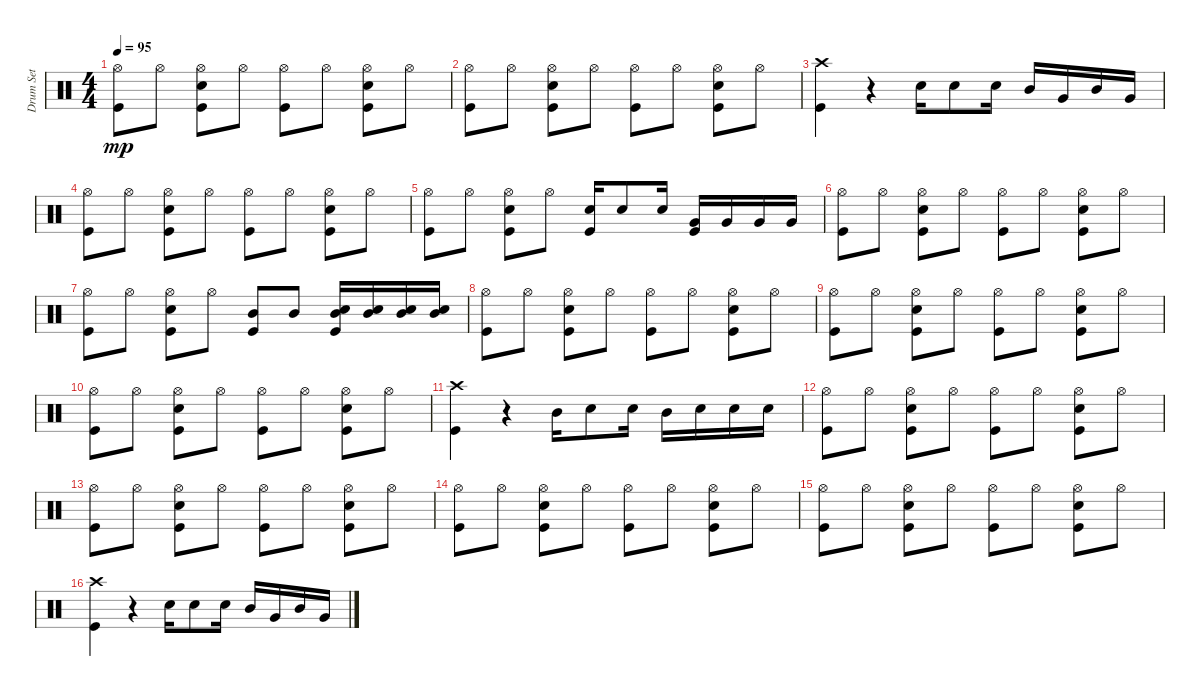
\track ("Drum Set" "Drum Set") {instrument percussion}
\staff {score}
\articulation defaults
\ts (4 4)
\tempo 95
\clef neutral
\ks c
("Kick (hit)" "Hi-Hat (open)").8{dy mp} "Hi-Hat (open)".8 ("Kick (hit)" "Snare (hit) 2" "Hi-Hat (open)").8 "Hi-Hat (open)".8 ("Kick (hit)" "Hi-Hat (open)").8 "Hi-Hat (open)".8 ("Kick (hit)" "Snare (hit) 2" "Hi-Hat (open)").8 "Hi-Hat (open)".8 |
("Kick (hit)" "Hi-Hat (open)").8 "Hi-Hat (open)".8 ("Kick (hit)" "Snare (hit) 2" "Hi-Hat (open)").8 "Hi-Hat (open)".8 ("Kick (hit)" "Hi-Hat (open)").8 "Hi-Hat (open)".8 ("Kick (hit)" "Snare (hit) 2" "Hi-Hat (open)").8 "Hi-Hat (open)".8 |
("Kick (hit)" "Crash high (hit)").4 r.4 "Snare (hit) 2".16 "Snare (hit) 2".8 "Snare (hit) 2".16 "Mid Tom (hit)".16 "Very Low Tom (hit)".16 "Mid Tom (hit)".16 "Very Low Tom (hit)".16 |
("Kick (hit)" "Hi-Hat (open)").8 "Hi-Hat (open)".8 ("Kick (hit)" "Snare (hit) 2" "Hi-Hat (open)").8 "Hi-Hat (open)".8 ("Kick (hit)" "Hi-Hat (open)").8 "Hi-Hat (open)".8 ("Kick (hit)" "Snare (hit) 2" "Hi-Hat (open)").8 "Hi-Hat (open)".8 |
("Kick (hit)" "Hi-Hat (open)").8 "Hi-Hat (open)".8 ("Kick (hit)" "Snare (hit) 2" "Hi-Hat (open)").8 "Hi-Hat (open)".8 ("Kick (hit)" "Snare (hit) 2").16 "Snare (hit) 2".8 "Snare (hit) 2".16 ("Kick (hit)" "Very Low Tom (hit)").16 "Very Low Tom (hit)".16 "Very Low Tom (hit)".16 "Very Low Tom (hit)".16 |
("Kick (hit)" "Hi-Hat (open)").8 "Hi-Hat (open)".8 ("Kick (hit)" "Snare (hit) 2" "Hi-Hat (open)").8 "Hi-Hat (open)".8 ("Kick (hit)" "Hi-Hat (open)").8 "Hi-Hat (open)".8 ("Kick (hit)" "Snare (hit) 2" "Hi-Hat (open)").8 "Hi-Hat (open)".8 |
("Kick (hit)" "Hi-Hat (open)").8 "Hi-Hat (open)".8 ("Kick (hit)" "Snare (hit) 2" "Hi-Hat (open)").8 "Hi-Hat (open)".8 ("Kick (hit)" "Mid Tom (hit)").8 "Mid Tom (hit)".8 ("Kick (hit)" "Mid Tom (hit)" "Snare (hit) 2").16 ("Mid Tom (hit)" "Snare (hit) 2").16 ("Mid Tom (hit)" "Snare (hit) 2").16 ("Snare (hit) 2" "Mid Tom (hit)").16 |
("Kick (hit)" "Hi-Hat (open)").8 "Hi-Hat (open)".8 ("Kick (hit)" "Snare (hit) 2" "Hi-Hat (open)").8 "Hi-Hat (open)".8 ("Kick (hit)" "Hi-Hat (open)").8 "Hi-Hat (open)".8 ("Kick (hit)" "Snare (hit) 2" "Hi-Hat (open)").8 "Hi-Hat (open)".8 |
("Kick (hit)" "Hi-Hat (open)").8 "Hi-Hat (open)".8 ("Kick (hit)" "Snare (hit) 2" "Hi-Hat (open)").8 "Hi-Hat (open)".8 ("Kick (hit)" "Hi-Hat (open)").8 "Hi-Hat (open)".8 ("Kick (hit)" "Snare (hit) 2" "Hi-Hat (open)").8 "Hi-Hat (open)".8 |
("Kick (hit)" "Hi-Hat (open)").8 "Hi-Hat (open)".8 ("Kick (hit)" "Snare (hit) 2" "Hi-Hat (open)").8 "Hi-Hat (open)".8 ("Kick (hit)" "Hi-Hat (open)").8 "Hi-Hat (open)".8 ("Kick (hit)" "Snare (hit) 2" "Hi-Hat (open)").8 "Hi-Hat (open)".8 |
("Kick (hit)" "Crash high (hit)").4 r.4 "Mid Tom (hit)".16 "Snare (hit) 2".8 "Snare (hit) 2".16 "Mid Tom (hit)".16 "Snare (hit) 2".16 "Snare (hit) 2".16 "Snare (hit) 2".16 |
("Kick (hit)" "Hi-Hat (open)").8 "Hi-Hat (open)".8 ("Kick (hit)" "Snare (hit) 2" "Hi-Hat (open)").8 "Hi-Hat (open)".8 ("Kick (hit)" "Hi-Hat (open)").8 "Hi-Hat (open)".8 ("Kick (hit)" "Snare (hit) 2" "Hi-Hat (open)").8 "Hi-Hat (open)".8 |
("Kick (hit)" "Hi-Hat (open)").8 "Hi-Hat (open)".8 ("Kick (hit)" "Snare (hit) 2" "Hi-Hat (open)").8 "Hi-Hat (open)".8 ("Kick (hit)" "Hi-Hat (open)").8 "Hi-Hat (open)".8 ("Kick (hit)" "Snare (hit) 2" "Hi-Hat (open)").8 "Hi-Hat (open)".8 |
("Kick (hit)" "Hi-Hat (open)").8 "Hi-Hat (open)".8 ("Kick (hit)" "Snare (hit) 2" "Hi-Hat (open)").8 "Hi-Hat (open)".8 ("Kick (hit)" "Hi-Hat (open)").8 "Hi-Hat (open)".8 ("Kick (hit)" "Snare (hit) 2" "Hi-Hat (open)").8 "Hi-Hat (open)".8 |
("Kick (hit)" "Hi-Hat (open)").8 "Hi-Hat (open)".8 ("Kick (hit)" "Snare (hit) 2" "Hi-Hat (open)").8 "Hi-Hat (open)".8 ("Kick (hit)" "Hi-Hat (open)").8 "Hi-Hat (open)".8 ("Kick (hit)" "Snare (hit) 2" "Hi-Hat (open)").8 "Hi-Hat (open)".8 |
("Kick (hit)" "Crash high (hit)").4 r.4 "Snare (hit) 2".16 "Snare (hit) 2".8 "Snare (hit) 2".16 "Mid Tom (hit)".16 "Very Low Tom (hit)".16 "Mid Tom (hit)".16 "Very Low Tom (hit)".16
